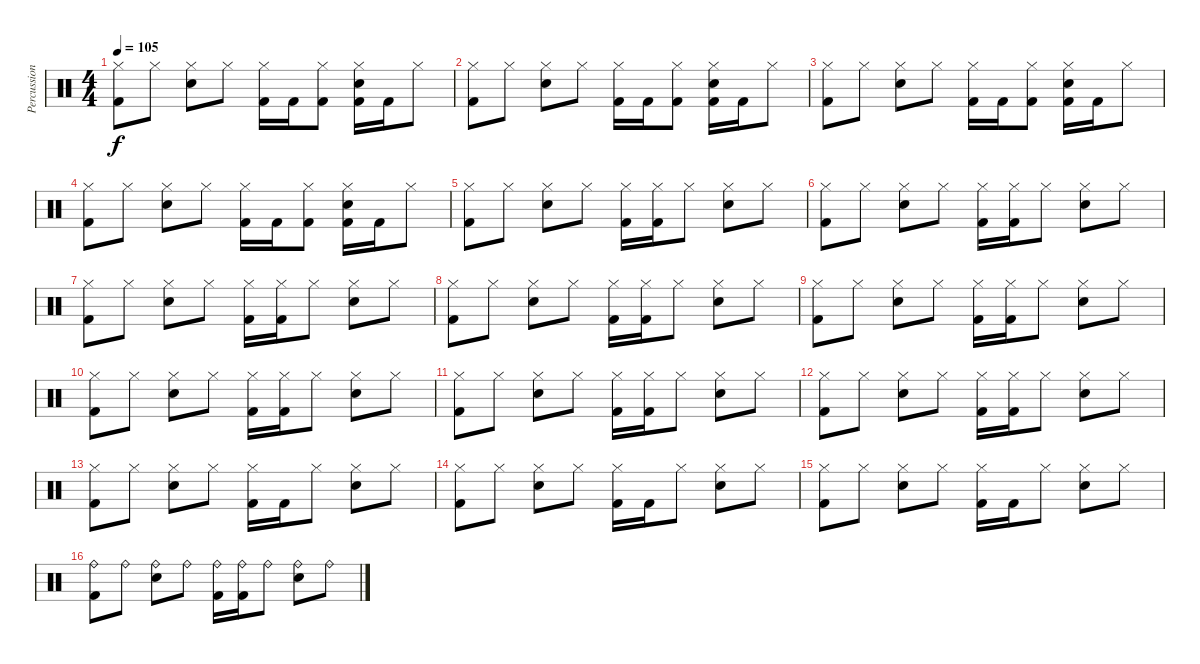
\track ("Percussions" "Percussion") {instrument percussion}
\staff {score}
\articulation defaults
\ts (4 4)
\tempo 105
\clef neutral
\ks c
("Hi-Hat (closed)" "Kick (hit) 2").8{dy f} "Hi-Hat (closed)".8 ("Hi-Hat (closed)" "Electric Snare (hit)").8 "Hi-Hat (closed)".8 ("Hi-Hat (closed)" "Kick (hit) 2").16 "Kick (hit) 2".16 ("Hi-Hat (closed)" "Kick (hit) 2").8 ("Hi-Hat (closed)" "Electric Snare (hit)" "Kick (hit) 2").16 "Kick (hit) 2".16 "Hi-Hat (closed)".8 |
("Hi-Hat (closed)" "Kick (hit) 2").8 "Hi-Hat (closed)".8 ("Hi-Hat (closed)" "Electric Snare (hit)").8 "Hi-Hat (closed)".8 ("Hi-Hat (closed)" "Kick (hit) 2").16 "Kick (hit) 2".16 ("Hi-Hat (closed)" "Kick (hit) 2").8 ("Hi-Hat (closed)" "Electric Snare (hit)" "Kick (hit) 2").16 "Kick (hit) 2".16 "Hi-Hat (closed)".8 |
("Hi-Hat (closed)" "Kick (hit) 2").8 "Hi-Hat (closed)".8 ("Hi-Hat (closed)" "Electric Snare (hit)").8 "Hi-Hat (closed)".8 ("Hi-Hat (closed)" "Kick (hit) 2").16 "Kick (hit) 2".16 ("Hi-Hat (closed)" "Kick (hit) 2").8 ("Hi-Hat (closed)" "Electric Snare (hit)" "Kick (hit) 2").16 "Kick (hit) 2".16 "Hi-Hat (closed)".8 |
("Hi-Hat (closed)" "Kick (hit) 2").8 "Hi-Hat (closed)".8 ("Hi-Hat (closed)" "Electric Snare (hit)").8 "Hi-Hat (closed)".8 ("Hi-Hat (closed)" "Kick (hit) 2").16 "Kick (hit) 2".16 ("Hi-Hat (closed)" "Kick (hit) 2").8 ("Hi-Hat (closed)" "Electric Snare (hit)" "Kick (hit) 2").16 "Kick (hit) 2".16 "Hi-Hat (closed)".8 |
("Hi-Hat (closed)" "Kick (hit) 2").8 "Hi-Hat (closed)".8 ("Hi-Hat (closed)" "Electric Snare (hit)").8 "Hi-Hat (closed)".8 ("Hi-Hat (closed)" "Kick (hit) 2").16 ("Hi-Hat (closed)" "Kick (hit) 2").16 "Hi-Hat (closed)".8 ("Hi-Hat (closed)" "Electric Snare (hit)").8 "Hi-Hat (closed)".8 |
("Hi-Hat (closed)" "Kick (hit) 2").8 "Hi-Hat (closed)".8 ("Hi-Hat (closed)" "Electric Snare (hit)").8 "Hi-Hat (closed)".8 ("Hi-Hat (closed)" "Kick (hit) 2").16 ("Hi-Hat (closed)" "Kick (hit) 2").16 "Hi-Hat (closed)".8 ("Hi-Hat (closed)" "Electric Snare (hit)").8 "Hi-Hat (closed)".8 |
("Hi-Hat (closed)" "Kick (hit) 2").8 "Hi-Hat (closed)".8 ("Hi-Hat (closed)" "Electric Snare (hit)").8 "Hi-Hat (closed)".8 ("Hi-Hat (closed)" "Kick (hit) 2").16 ("Hi-Hat (closed)" "Kick (hit) 2").16 "Hi-Hat (closed)".8 ("Hi-Hat (closed)" "Electric Snare (hit)").8 "Hi-Hat (closed)".8 |
("Hi-Hat (closed)" "Kick (hit) 2").8 "Hi-Hat (closed)".8 ("Hi-Hat (closed)" "Electric Snare (hit)").8 "Hi-Hat (closed)".8 ("Hi-Hat (closed)" "Kick (hit) 2").16 ("Hi-Hat (closed)" "Kick (hit) 2").16 "Hi-Hat (closed)".8 ("Hi-Hat (closed)" "Electric Snare (hit)").8 "Hi-Hat (closed)".8 |
("Hi-Hat (closed)" "Kick (hit) 2").8 "Hi-Hat (closed)".8 ("Hi-Hat (closed)" "Electric Snare (hit)").8 "Hi-Hat (closed)".8 ("Hi-Hat (closed)" "Kick (hit) 2").16 ("Hi-Hat (closed)" "Kick (hit) 2").16 "Hi-Hat (closed)".8 ("Hi-Hat (closed)" "Electric Snare (hit)").8 "Hi-Hat (closed)".8 |
("Hi-Hat (closed)" "Kick (hit) 2").8 "Hi-Hat (closed)".8 ("Hi-Hat (closed)" "Electric Snare (hit)").8 "Hi-Hat (closed)".8 ("Hi-Hat (closed)" "Kick (hit) 2").16 ("Hi-Hat (closed)" "Kick (hit) 2").16 "Hi-Hat (closed)".8 ("Hi-Hat (closed)" "Electric Snare (hit)").8 "Hi-Hat (closed)".8 |
("Hi-Hat (closed)" "Kick (hit) 2").8 "Hi-Hat (closed)".8 ("Hi-Hat (closed)" "Electric Snare (hit)").8 "Hi-Hat (closed)".8 ("Hi-Hat (closed)" "Kick (hit) 2").16 ("Hi-Hat (closed)" "Kick (hit) 2").16 "Hi-Hat (closed)".8 ("Hi-Hat (closed)" "Electric Snare (hit)").8 "Hi-Hat (closed)".8 |
("Hi-Hat (closed)" "Kick (hit) 2").8 "Hi-Hat (closed)".8 ("Hi-Hat (closed)" "Electric Snare (hit)").8 "Hi-Hat (closed)".8 ("Hi-Hat (closed)" "Kick (hit) 2").16 ("Hi-Hat (closed)" "Kick (hit) 2").16 "Hi-Hat (closed)".8 ("Hi-Hat (closed)" "Electric Snare (hit)").8 "Hi-Hat (closed)".8 |
("Hi-Hat (closed)" "Kick (hit) 2").8 "Hi-Hat (closed)".8 ("Hi-Hat (closed)" "Electric Snare (hit)").8 "Hi-Hat (closed)".8 ("Hi-Hat (closed)" "Kick (hit) 2").16 "Kick (hit) 2".16 "Hi-Hat (closed)".8 ("Hi-Hat (closed)" "Electric Snare (hit)").8 "Hi-Hat (closed)".8 |
("Hi-Hat (closed)" "Kick (hit) 2").8 "Hi-Hat (closed)".8 ("Hi-Hat (closed)" "Electric Snare (hit)").8 "Hi-Hat (closed)".8 ("Hi-Hat (closed)" "Kick (hit) 2").16 "Kick (hit) 2".16 "Hi-Hat (closed)".8 ("Hi-Hat (closed)" "Electric Snare (hit)").8 "Hi-Hat (closed)".8 |
("Hi-Hat (closed)" "Kick (hit) 2").8 "Hi-Hat (closed)".8 ("Hi-Hat (closed)" "Electric Snare (hit)").8 "Hi-Hat (closed)".8 ("Hi-Hat (closed)" "Kick (hit) 2").16 "Kick (hit) 2".16 "Hi-Hat (closed)".8 ("Hi-Hat (closed)" "Electric Snare (hit)").8 "Hi-Hat (closed)".8 |
("Ride (bell)" "Kick (hit) 2").8 "Ride (bell)".8 ("Ride (bell)" "Electric Snare (hit)").8 "Ride (bell)".8 ("Ride (bell)" "Kick (hit) 2").16 ("Ride (bell)" "Kick (hit) 2").16 "Ride (bell)".8 ("Ride (bell)" "Electric Snare (hit)").8 "Ride (bell)".8
